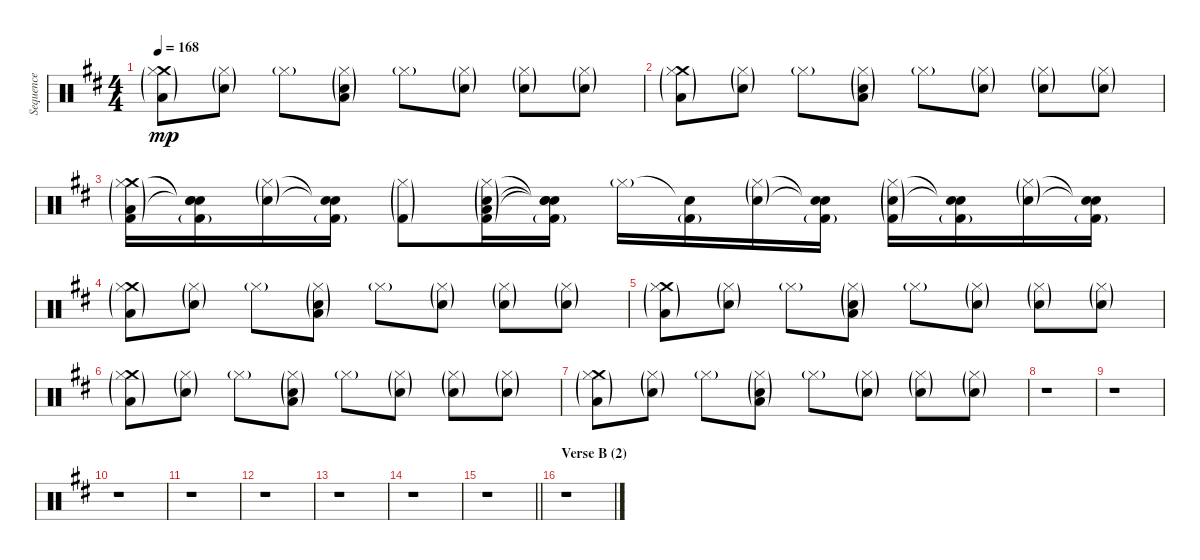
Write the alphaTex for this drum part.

\track ("Sequence" "Sequence") {instrument percussion}
\staff {score}
\articulation defaults
\ts (4 4)
\tempo 168
\clef neutral
\ks d
("Crash medium (hit)"{g} "Hi-Hat (closed)"{g} "Low Floor Tom (hit)"{g}).8{dy mp} ("Hi-Hat (closed)"{g} "Electric Snare (hit)"{g}).8 "Hi-Hat (closed)"{g}.8 ("Hi-Hat (closed)"{g} "Electric Snare (hit)"{g} "Low Floor Tom (hit)"{g}).8 "Hi-Hat (closed)"{g}.8 ("Hi-Hat (closed)"{g} "Electric Snare (hit)"{g}).8 ("Hi-Hat (closed)"{g} "Electric Snare (hit)"{g}).8 ("Hi-Hat (closed)"{g} "Electric Snare (hit)"{g}).8 |
("Crash medium (hit)"{g} "Hi-Hat (closed)"{g} "Low Floor Tom (hit)"{g}).8 ("Hi-Hat (closed)"{g} "Electric Snare (hit)"{g}).8 "Hi-Hat (closed)"{g}.8 ("Hi-Hat (closed)"{g} "Electric Snare (hit)"{g} "Low Floor Tom (hit)"{g}).8 "Hi-Hat (closed)"{g}.8 ("Hi-Hat (closed)"{g} "Electric Snare (hit)"{g}).8 ("Hi-Hat (closed)"{g} "Electric Snare (hit)"{g}).8 ("Hi-Hat (closed)"{g} "Electric Snare (hit)"{g}).8 |
("Crash medium (hit)"{g} "Hi-Hat (closed)"{g} "Low Floor Tom (hit)"{g} "Kick (hit) 2"{g}).16 ("Snare (hit)"{t} "Snare (hit)"{t} "Snare (hit)"{t} "Kick (hit) 2"{g}).16 ("Hi-Hat (closed)"{g} "Electric Snare (hit)"{g}).16 ("Snare (hit)"{t} "Snare (hit)"{t} "Kick (hit) 2"{g}).16 ("Hi-Hat (closed)"{g} "Kick (hit) 2"{g}).8 ("Hi-Hat (closed)"{g} "Electric Snare (hit)"{g} "Low Floor Tom (hit)"{g} "Kick (hit) 2"{g}).16 ("Snare (hit)"{t} "Snare (hit)"{t} "Snare (hit)"{t} "Kick (hit) 2"{g}).16 "Hi-Hat (closed)"{g}.16 ("Snare (hit)"{t} "Kick (hit) 2"{g}).16 ("Hi-Hat (closed)"{g} "Electric Snare (hit)"{g}).16 ("Snare (hit)"{t} "Snare (hit)"{t} "Kick (hit) 2"{g}).16 ("Hi-Hat (closed)"{g} "Electric Snare (hit)"{g} "Kick (hit) 2"{g}).16 ("Snare (hit)"{t} "Snare (hit)"{t} "Kick (hit) 2"{g}).16 ("Hi-Hat (closed)"{g} "Electric Snare (hit)"{g}).16 ("Snare (hit)"{t} "Snare (hit)"{t} "Kick (hit) 2"{g}).16 |
("Crash medium (hit)"{g} "Hi-Hat (closed)"{g} "Low Floor Tom (hit)"{g}).8 ("Hi-Hat (closed)"{g} "Electric Snare (hit)"{g}).8 "Hi-Hat (closed)"{g}.8 ("Hi-Hat (closed)"{g} "Electric Snare (hit)"{g} "Low Floor Tom (hit)"{g}).8 "Hi-Hat (closed)"{g}.8 ("Hi-Hat (closed)"{g} "Electric Snare (hit)"{g}).8 ("Hi-Hat (closed)"{g} "Electric Snare (hit)"{g}).8 ("Hi-Hat (closed)"{g} "Electric Snare (hit)"{g}).8 |
("Crash medium (hit)"{g} "Hi-Hat (closed)"{g} "Low Floor Tom (hit)"{g}).8 ("Hi-Hat (closed)"{g} "Electric Snare (hit)"{g}).8 "Hi-Hat (closed)"{g}.8 ("Hi-Hat (closed)"{g} "Electric Snare (hit)"{g} "Low Floor Tom (hit)"{g}).8 "Hi-Hat (closed)"{g}.8 ("Hi-Hat (closed)"{g} "Electric Snare (hit)"{g}).8 ("Hi-Hat (closed)"{g} "Electric Snare (hit)"{g}).8 ("Hi-Hat (closed)"{g} "Electric Snare (hit)"{g}).8 |
("Crash medium (hit)"{g} "Hi-Hat (closed)"{g} "Low Floor Tom (hit)"{g}).8 ("Hi-Hat (closed)"{g} "Electric Snare (hit)"{g}).8 "Hi-Hat (closed)"{g}.8 ("Hi-Hat (closed)"{g} "Electric Snare (hit)"{g} "Low Floor Tom (hit)"{g}).8 "Hi-Hat (closed)"{g}.8 ("Hi-Hat (closed)"{g} "Electric Snare (hit)"{g}).8 ("Hi-Hat (closed)"{g} "Electric Snare (hit)"{g}).8 ("Hi-Hat (closed)"{g} "Electric Snare (hit)"{g}).8 |
("Crash medium (hit)"{g} "Hi-Hat (closed)"{g} "Low Floor Tom (hit)"{g}).8 ("Hi-Hat (closed)"{g} "Electric Snare (hit)"{g}).8 "Hi-Hat (closed)"{g}.8 ("Hi-Hat (closed)"{g} "Electric Snare (hit)"{g} "Low Floor Tom (hit)"{g}).8 "Hi-Hat (closed)"{g}.8 ("Hi-Hat (closed)"{g} "Electric Snare (hit)"{g}).8 ("Hi-Hat (closed)"{g} "Electric Snare (hit)"{g}).8 ("Hi-Hat (closed)"{g} "Electric Snare (hit)"{g}).8 |
r.1 |
r.1 |
r.1 |
r.1 |
r.1 |
r.1 |
r.1 |
\barLineRight lightlight
r.1 |
\section ("" "Verse B (2)")
r.1
